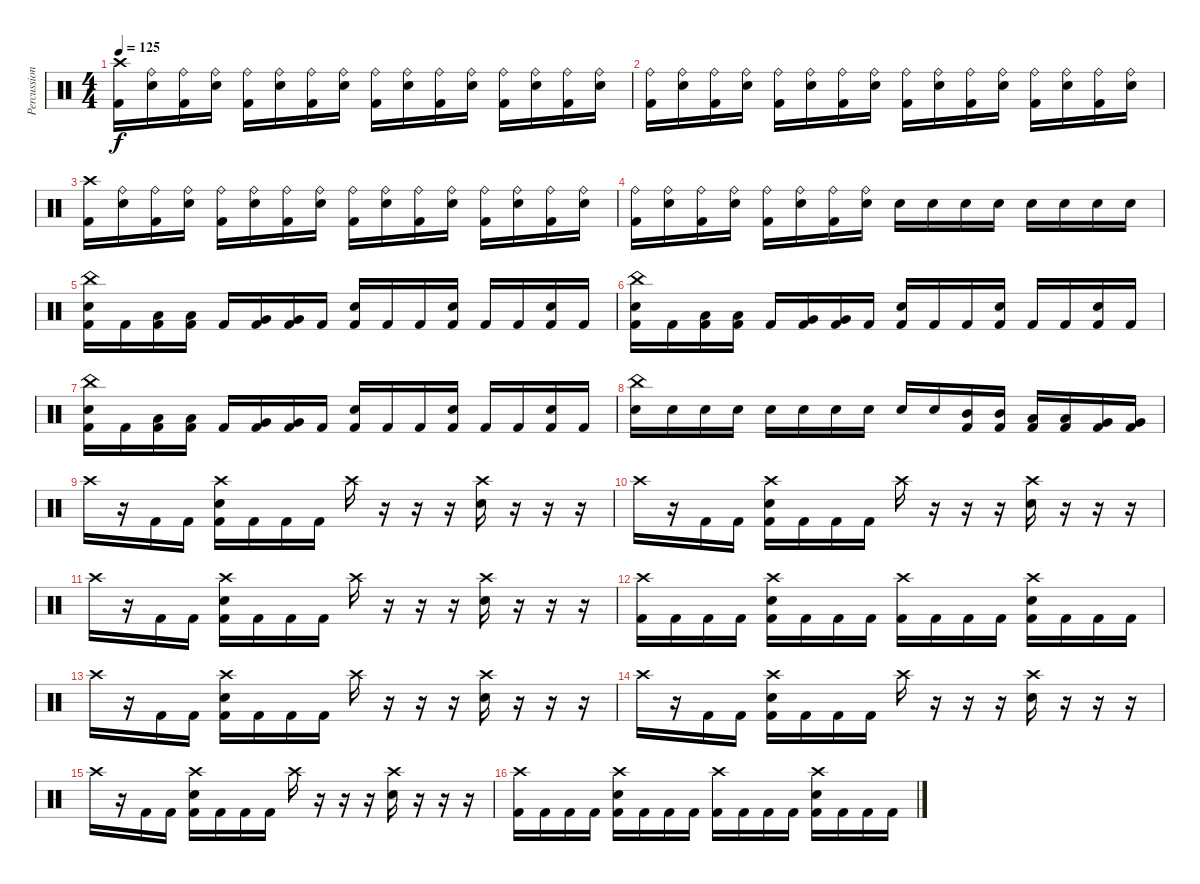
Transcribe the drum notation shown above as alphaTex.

\track ("Percussion" "Percussion") {instrument percussion}
\staff {score}
\articulation defaults
\ts (4 4)
\tempo 125
\clef neutral
\ks c
("Crash high (hit)" "Kick (hit) 2").16{dy f} ("Ride (bell)" "Snare (hit) 2").16 ("Ride (bell)" "Kick (hit) 2").16 ("Ride (bell)" "Snare (hit) 2").16 ("Ride (bell)" "Kick (hit) 2").16 ("Ride (bell)" "Snare (hit) 2").16 ("Ride (bell)" "Kick (hit) 2").16 ("Ride (bell)" "Snare (hit) 2").16 ("Ride (bell)" "Kick (hit) 2").16 ("Ride (bell)" "Snare (hit) 2").16 ("Ride (bell)" "Kick (hit) 2").16 ("Ride (bell)" "Snare (hit) 2").16 ("Ride (bell)" "Kick (hit) 2").16 ("Ride (bell)" "Snare (hit) 2").16 ("Ride (bell)" "Kick (hit) 2").16 ("Ride (bell)" "Snare (hit) 2").16 |
("Ride (bell)" "Kick (hit) 2").16 ("Ride (bell)" "Snare (hit) 2").16 ("Ride (bell)" "Kick (hit) 2").16 ("Ride (bell)" "Snare (hit) 2").16 ("Ride (bell)" "Kick (hit) 2").16 ("Ride (bell)" "Snare (hit) 2").16 ("Ride (bell)" "Kick (hit) 2").16 ("Ride (bell)" "Snare (hit) 2").16 ("Ride (bell)" "Kick (hit) 2").16 ("Ride (bell)" "Snare (hit) 2").16 ("Ride (bell)" "Kick (hit) 2").16 ("Ride (bell)" "Snare (hit) 2").16 ("Ride (bell)" "Kick (hit) 2").16 ("Ride (bell)" "Snare (hit) 2").16 ("Ride (bell)" "Kick (hit) 2").16 ("Ride (bell)" "Snare (hit) 2").16 |
("Crash high (hit)" "Kick (hit) 2").16 ("Ride (bell)" "Snare (hit) 2").16 ("Ride (bell)" "Kick (hit) 2").16 ("Ride (bell)" "Snare (hit) 2").16 ("Ride (bell)" "Kick (hit) 2").16 ("Ride (bell)" "Snare (hit) 2").16 ("Ride (bell)" "Kick (hit) 2").16 ("Ride (bell)" "Snare (hit) 2").16 ("Ride (bell)" "Kick (hit) 2").16 ("Ride (bell)" "Snare (hit) 2").16 ("Ride (bell)" "Kick (hit) 2").16 ("Ride (bell)" "Snare (hit) 2").16 ("Ride (bell)" "Kick (hit) 2").16 ("Ride (bell)" "Snare (hit) 2").16 ("Ride (bell)" "Kick (hit) 2").16 ("Ride (bell)" "Snare (hit) 2").16 |
("Ride (bell)" "Kick (hit) 2").16 ("Ride (bell)" "Snare (hit) 2").16 ("Ride (bell)" "Kick (hit) 2").16 ("Ride (bell)" "Snare (hit) 2").16 ("Ride (bell)" "Kick (hit) 2").16 ("Ride (bell)" "Snare (hit) 2").16 ("Ride (bell)" "Kick (hit) 2").16 ("Ride (bell)" "Snare (hit) 2").16 "Snare (hit) 2".16 "Snare (hit) 2".16 "Snare (hit) 2".16 "Snare (hit) 2".16 "Snare (hit) 2".16 "Snare (hit) 2".16 "Snare (hit) 2".16 "Snare (hit) 2".16 |
("China (hit)" "Snare (hit) 2" "Kick (hit) 2").16 "Kick (hit) 2".16 ("Low Tom (hit)" "Kick (hit) 2").16 ("Low Tom (hit)" "Kick (hit) 2").16 "Kick (hit) 2".16 ("Very Low Tom (hit)" "Kick (hit) 2").16 ("Very Low Tom (hit)" "Kick (hit) 2").16 "Kick (hit) 2".16 ("Snare (hit) 2" "Kick (hit) 2").16 "Kick (hit) 2".16 "Kick (hit) 2".16 ("Snare (hit) 2" "Kick (hit) 2").16 "Kick (hit) 2".16 "Kick (hit) 2".16 ("Snare (hit) 2" "Kick (hit) 2").16 "Kick (hit) 2".16 |
("China (hit)" "Snare (hit) 2" "Kick (hit) 2").16 "Kick (hit) 2".16 ("Low Tom (hit)" "Kick (hit) 2").16 ("Low Tom (hit)" "Kick (hit) 2").16 "Kick (hit) 2".16 ("Very Low Tom (hit)" "Kick (hit) 2").16 ("Very Low Tom (hit)" "Kick (hit) 2").16 "Kick (hit) 2".16 ("Snare (hit) 2" "Kick (hit) 2").16 "Kick (hit) 2".16 "Kick (hit) 2".16 ("Snare (hit) 2" "Kick (hit) 2").16 "Kick (hit) 2".16 "Kick (hit) 2".16 ("Snare (hit) 2" "Kick (hit) 2").16 "Kick (hit) 2".16 |
("China (hit)" "Snare (hit) 2" "Kick (hit) 2").16 "Kick (hit) 2".16 ("Low Tom (hit)" "Kick (hit) 2").16 ("Low Tom (hit)" "Kick (hit) 2").16 "Kick (hit) 2".16 ("Very Low Tom (hit)" "Kick (hit) 2").16 ("Very Low Tom (hit)" "Kick (hit) 2").16 "Kick (hit) 2".16 ("Snare (hit) 2" "Kick (hit) 2").16 "Kick (hit) 2".16 "Kick (hit) 2".16 ("Snare (hit) 2" "Kick (hit) 2").16 "Kick (hit) 2".16 "Kick (hit) 2".16 ("Snare (hit) 2" "Kick (hit) 2").16 "Kick (hit) 2".16 |
("China (hit)" "Snare (hit) 2").16 "Snare (hit) 2".16 "Snare (hit) 2".16 "Snare (hit) 2".16 "Snare (hit) 2".16 "Snare (hit) 2".16 "Snare (hit) 2".16 "Snare (hit) 2".16 "Snare (hit) 2".16 "Snare (hit) 2".16 ("Mid Tom (hit)" "Kick (hit) 2").16 ("Mid Tom (hit)" "Kick (hit) 2").16 ("Low Tom (hit)" "Kick (hit) 2").16 ("Low Tom (hit)" "Kick (hit) 2").16 ("Very Low Tom (hit)" "Kick (hit) 2").16 ("Very Low Tom (hit)" "Kick (hit) 2").16 |
"Crash high (hit)".16 r.16 "Kick (hit) 2".16 "Kick (hit) 2".16 ("Crash high (hit)" "Snare (hit) 2" "Kick (hit) 2").16 "Kick (hit) 2".16 "Kick (hit) 2".16 "Kick (hit) 2".16 "Crash high (hit)".16 r.16 r.16 r.16 ("Crash high (hit)" "Snare (hit) 2").16 r.16 r.16 r.16 |
"Crash high (hit)".16 r.16 "Kick (hit) 2".16 "Kick (hit) 2".16 ("Crash high (hit)" "Snare (hit) 2" "Kick (hit) 2").16 "Kick (hit) 2".16 "Kick (hit) 2".16 "Kick (hit) 2".16 "Crash high (hit)".16 r.16 r.16 r.16 ("Crash high (hit)" "Snare (hit) 2").16 r.16 r.16 r.16 |
"Crash high (hit)".16 r.16 "Kick (hit) 2".16 "Kick (hit) 2".16 ("Crash high (hit)" "Snare (hit) 2" "Kick (hit) 2").16 "Kick (hit) 2".16 "Kick (hit) 2".16 "Kick (hit) 2".16 "Crash high (hit)".16 r.16 r.16 r.16 ("Crash high (hit)" "Snare (hit) 2").16 r.16 r.16 r.16 |
("Crash high (hit)" "Kick (hit) 2").16 "Kick (hit) 2".16 "Kick (hit) 2".16 "Kick (hit) 2".16 ("Crash high (hit)" "Snare (hit) 2" "Kick (hit) 2").16 "Kick (hit) 2".16 "Kick (hit) 2".16 "Kick (hit) 2".16 ("Crash high (hit)" "Kick (hit) 2").16 "Kick (hit) 2".16 "Kick (hit) 2".16 "Kick (hit) 2".16 ("Crash high (hit)" "Snare (hit) 2" "Kick (hit) 2").16 "Kick (hit) 2".16 "Kick (hit) 2".16 "Kick (hit) 2".16 |
"Crash high (hit)".16 r.16 "Kick (hit) 2".16 "Kick (hit) 2".16 ("Crash high (hit)" "Snare (hit) 2" "Kick (hit) 2").16 "Kick (hit) 2".16 "Kick (hit) 2".16 "Kick (hit) 2".16 "Crash high (hit)".16 r.16 r.16 r.16 ("Crash high (hit)" "Snare (hit) 2").16 r.16 r.16 r.16 |
"Crash high (hit)".16 r.16 "Kick (hit) 2".16 "Kick (hit) 2".16 ("Crash high (hit)" "Snare (hit) 2" "Kick (hit) 2").16 "Kick (hit) 2".16 "Kick (hit) 2".16 "Kick (hit) 2".16 "Crash high (hit)".16 r.16 r.16 r.16 ("Crash high (hit)" "Snare (hit) 2").16 r.16 r.16 r.16 |
"Crash high (hit)".16 r.16 "Kick (hit) 2".16 "Kick (hit) 2".16 ("Crash high (hit)" "Snare (hit) 2" "Kick (hit) 2").16 "Kick (hit) 2".16 "Kick (hit) 2".16 "Kick (hit) 2".16 "Crash high (hit)".16 r.16 r.16 r.16 ("Crash high (hit)" "Snare (hit) 2").16 r.16 r.16 r.16 |
("Crash high (hit)" "Kick (hit) 2").16 "Kick (hit) 2".16 "Kick (hit) 2".16 "Kick (hit) 2".16 ("Crash high (hit)" "Snare (hit) 2" "Kick (hit) 2").16 "Kick (hit) 2".16 "Kick (hit) 2".16 "Kick (hit) 2".16 ("Crash high (hit)" "Kick (hit) 2").16 "Kick (hit) 2".16 "Kick (hit) 2".16 "Kick (hit) 2".16 ("Crash high (hit)" "Snare (hit) 2" "Kick (hit) 2").16 "Kick (hit) 2".16 "Kick (hit) 2".16 "Kick (hit) 2".16
